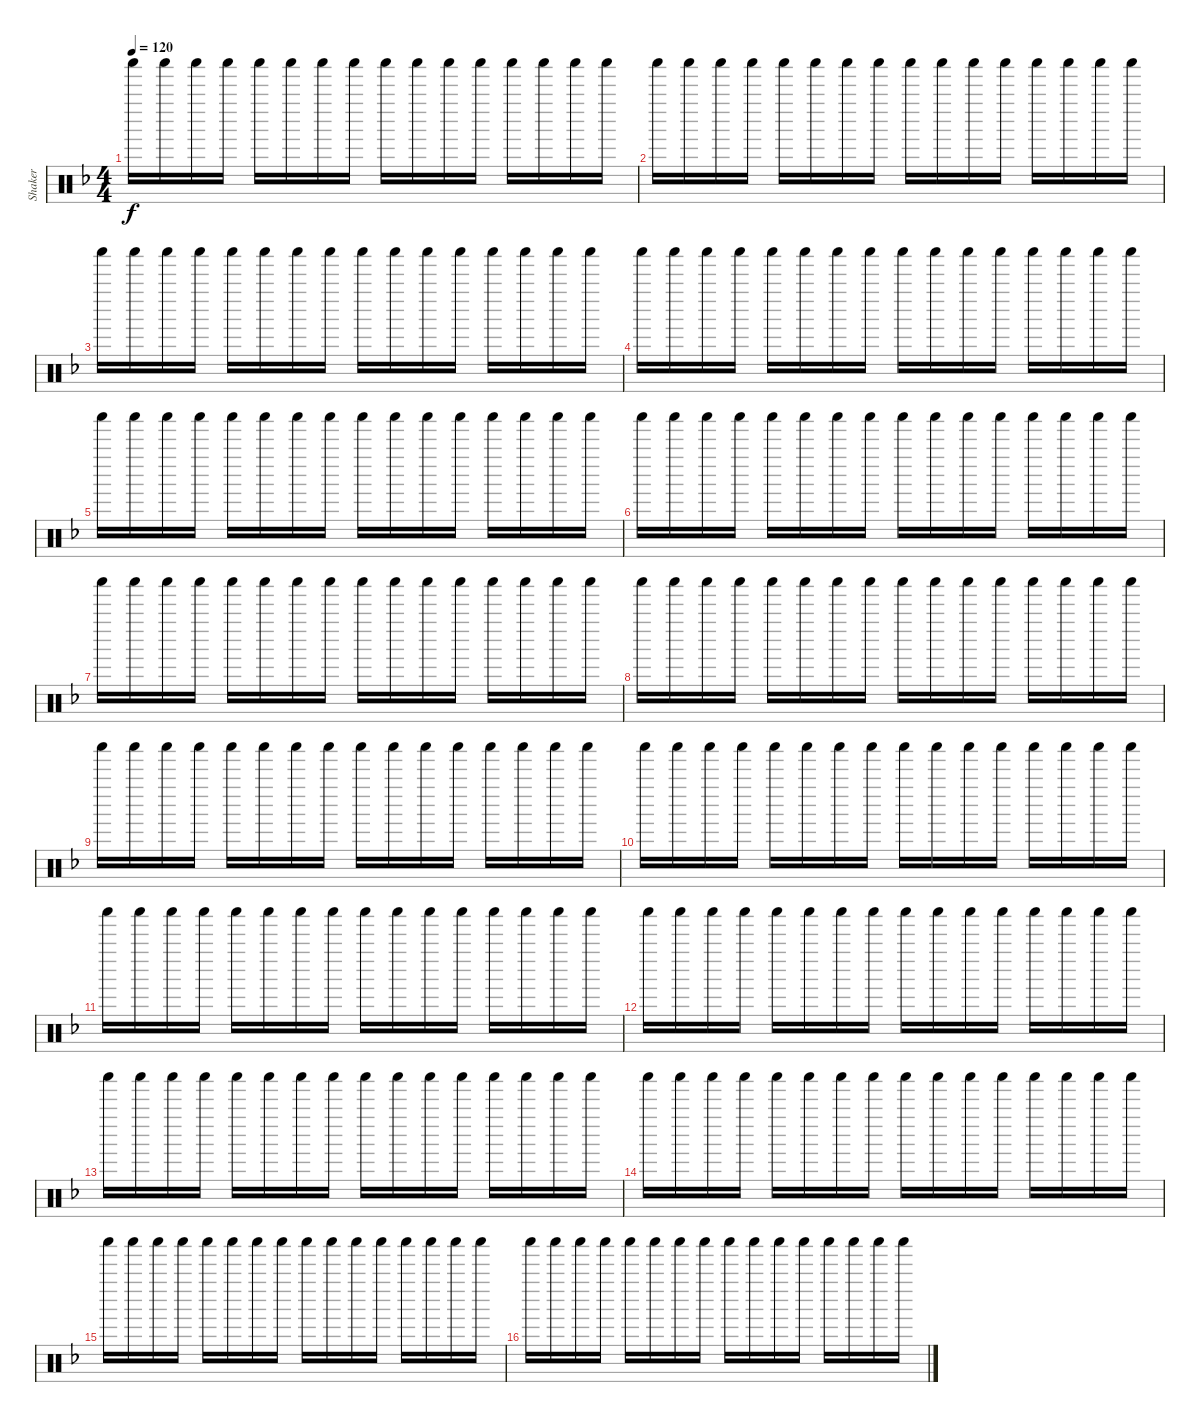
\track ("Shaker" "Shaker") {instrument percussion}
\staff {score}
\articulation defaults
\ts (4 4)
\tempo 120
\clef neutral
\ks f "Shaker (hit)".16{dy f} "Shaker (hit)".16 "Shaker (hit)".16 "Shaker (hit)".16 "Shaker (hit)".16 "Shaker (hit)".16 "Shaker (hit)".16 "Shaker (hit)".16 "Shaker (hit)".16 "Shaker (hit)".16 "Shaker (hit)".16 "Shaker (hit)".16 "Shaker (hit)".16 "Shaker (hit)".16 "Shaker (hit)".16 "Shaker (hit)".16
|
"Shaker (hit)".16 "Shaker (hit)".16 "Shaker (hit)".16 "Shaker (hit)".16 "Shaker (hit)".16 "Shaker (hit)".16 "Shaker (hit)".16 "Shaker (hit)".16 "Shaker (hit)".16 "Shaker (hit)".16 "Shaker (hit)".16 "Shaker (hit)".16 "Shaker (hit)".16 "Shaker (hit)".16 "Shaker (hit)".16 "Shaker (hit)".16 |
"Shaker (hit)".16 "Shaker (hit)".16 "Shaker (hit)".16 "Shaker (hit)".16 "Shaker (hit)".16 "Shaker (hit)".16 "Shaker (hit)".16 "Shaker (hit)".16 "Shaker (hit)".16 "Shaker (hit)".16 "Shaker (hit)".16 "Shaker (hit)".16 "Shaker (hit)".16 "Shaker (hit)".16 "Shaker (hit)".16 "Shaker (hit)".16 |
"Shaker (hit)".16 "Shaker (hit)".16 "Shaker (hit)".16 "Shaker (hit)".16 "Shaker (hit)".16 "Shaker (hit)".16 "Shaker (hit)".16 "Shaker (hit)".16 "Shaker (hit)".16 "Shaker (hit)".16 "Shaker (hit)".16 "Shaker (hit)".16 "Shaker (hit)".16 "Shaker (hit)".16 "Shaker (hit)".16 "Shaker (hit)".16 |
"Shaker (hit)".16 "Shaker (hit)".16 "Shaker (hit)".16 "Shaker (hit)".16 "Shaker (hit)".16 "Shaker (hit)".16 "Shaker (hit)".16 "Shaker (hit)".16 "Shaker (hit)".16 "Shaker (hit)".16 "Shaker (hit)".16 "Shaker (hit)".16 "Shaker (hit)".16 "Shaker (hit)".16 "Shaker (hit)".16 "Shaker (hit)".16 |
"Shaker (hit)".16 "Shaker (hit)".16 "Shaker (hit)".16 "Shaker (hit)".16 "Shaker (hit)".16 "Shaker (hit)".16 "Shaker (hit)".16 "Shaker (hit)".16 "Shaker (hit)".16 "Shaker (hit)".16 "Shaker (hit)".16 "Shaker (hit)".16 "Shaker (hit)".16 "Shaker (hit)".16 "Shaker (hit)".16 "Shaker (hit)".16 |
"Shaker (hit)".16 "Shaker (hit)".16 "Shaker (hit)".16 "Shaker (hit)".16 "Shaker (hit)".16 "Shaker (hit)".16 "Shaker (hit)".16 "Shaker (hit)".16 "Shaker (hit)".16 "Shaker (hit)".16 "Shaker (hit)".16 "Shaker (hit)".16 "Shaker (hit)".16 "Shaker (hit)".16 "Shaker (hit)".16 "Shaker (hit)".16 |
"Shaker (hit)".16 "Shaker (hit)".16 "Shaker (hit)".16 "Shaker (hit)".16 "Shaker (hit)".16 "Shaker (hit)".16 "Shaker (hit)".16 "Shaker (hit)".16 "Shaker (hit)".16 "Shaker (hit)".16 "Shaker (hit)".16 "Shaker (hit)".16 "Shaker (hit)".16 "Shaker (hit)".16 "Shaker (hit)".16 "Shaker (hit)".16 |
"Shaker (hit)".16 "Shaker (hit)".16 "Shaker (hit)".16 "Shaker (hit)".16 "Shaker (hit)".16 "Shaker (hit)".16 "Shaker (hit)".16 "Shaker (hit)".16 "Shaker (hit)".16 "Shaker (hit)".16 "Shaker (hit)".16 "Shaker (hit)".16 "Shaker (hit)".16 "Shaker (hit)".16 "Shaker (hit)".16 "Shaker (hit)".16 |
"Shaker (hit)".16 "Shaker (hit)".16 "Shaker (hit)".16 "Shaker (hit)".16 "Shaker (hit)".16 "Shaker (hit)".16 "Shaker (hit)".16 "Shaker (hit)".16 "Shaker (hit)".16 "Shaker (hit)".16 "Shaker (hit)".16 "Shaker (hit)".16 "Shaker (hit)".16 "Shaker (hit)".16 "Shaker (hit)".16 "Shaker (hit)".16 |
"Shaker (hit)".16 "Shaker (hit)".16 "Shaker (hit)".16 "Shaker (hit)".16 "Shaker (hit)".16 "Shaker (hit)".16 "Shaker (hit)".16 "Shaker (hit)".16 "Shaker (hit)".16 "Shaker (hit)".16 "Shaker (hit)".16 "Shaker (hit)".16 "Shaker (hit)".16 "Shaker (hit)".16 "Shaker (hit)".16 "Shaker (hit)".16 |
"Shaker (hit)".16 "Shaker (hit)".16 "Shaker (hit)".16 "Shaker (hit)".16 "Shaker (hit)".16 "Shaker (hit)".16 "Shaker (hit)".16 "Shaker (hit)".16 "Shaker (hit)".16 "Shaker (hit)".16 "Shaker (hit)".16 "Shaker (hit)".16 "Shaker (hit)".16 "Shaker (hit)".16 "Shaker (hit)".16 "Shaker (hit)".16 |
"Shaker (hit)".16 "Shaker (hit)".16 "Shaker (hit)".16 "Shaker (hit)".16 "Shaker (hit)".16 "Shaker (hit)".16 "Shaker (hit)".16 "Shaker (hit)".16 "Shaker (hit)".16 "Shaker (hit)".16 "Shaker (hit)".16 "Shaker (hit)".16 "Shaker (hit)".16 "Shaker (hit)".16 "Shaker (hit)".16 "Shaker (hit)".16 |
"Shaker (hit)".16 "Shaker (hit)".16 "Shaker (hit)".16 "Shaker (hit)".16 "Shaker (hit)".16 "Shaker (hit)".16 "Shaker (hit)".16 "Shaker (hit)".16 "Shaker (hit)".16 "Shaker (hit)".16 "Shaker (hit)".16 "Shaker (hit)".16 "Shaker (hit)".16 "Shaker (hit)".16 "Shaker (hit)".16 "Shaker (hit)".16 |
"Shaker (hit)".16 "Shaker (hit)".16 "Shaker (hit)".16 "Shaker (hit)".16 "Shaker (hit)".16 "Shaker (hit)".16 "Shaker (hit)".16 "Shaker (hit)".16 "Shaker (hit)".16 "Shaker (hit)".16 "Shaker (hit)".16 "Shaker (hit)".16 "Shaker (hit)".16 "Shaker (hit)".16 "Shaker (hit)".16 "Shaker (hit)".16 |
"Shaker (hit)".16 "Shaker (hit)".16 "Shaker (hit)".16 "Shaker (hit)".16 "Shaker (hit)".16 "Shaker (hit)".16 "Shaker (hit)".16 "Shaker (hit)".16 "Shaker (hit)".16 "Shaker (hit)".16 "Shaker (hit)".16 "Shaker (hit)".16 "Shaker (hit)".16 "Shaker (hit)".16 "Shaker (hit)".16 "Shaker (hit)".16
